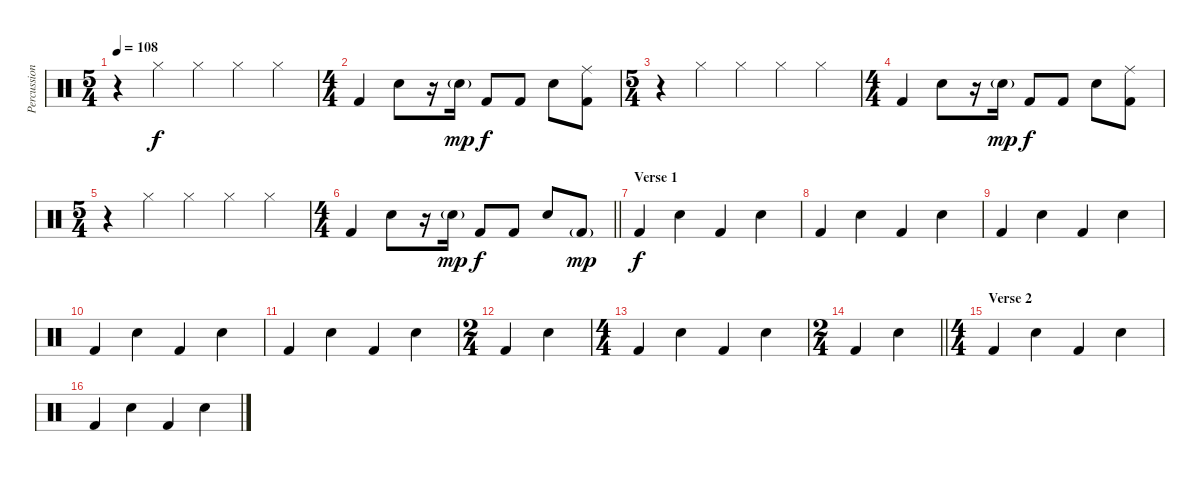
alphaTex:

\track ("Percussion" "Percussion") {instrument percussion}
\staff {score}
\articulation defaults
\ts (5 4)
\tempo 108
\clef neutral
\ks c
r.4{dy f} "Hi-Hat (closed)".4 "Hi-Hat (closed)".4 "Hi-Hat (closed)".4 "Hi-Hat (closed)".4 |
\ts (4 4)
"Kick (hit) 2".4 "Snare (hit) 2".8 r.16 "Snare (hit) 2"{g}.16{dy mp} "Kick (hit) 2".8{dy f} "Kick (hit) 2".8 "Snare (hit) 2".8 ("Ride (middle)" "Kick (hit) 2").8 |
\ts (5 4)
r.4 "Hi-Hat (closed)".4 "Hi-Hat (closed)".4 "Hi-Hat (closed)".4 "Hi-Hat (closed)".4 |
\ts (4 4)
"Kick (hit) 2".4 "Snare (hit) 2".8 r.16 "Snare (hit) 2"{g}.16{dy mp} "Kick (hit) 2".8{dy f} "Kick (hit) 2".8 "Snare (hit) 2".8 ("Ride (middle)" "Kick (hit) 2").8 |
\ts (5 4)
r.4 "Hi-Hat (closed)".4 "Hi-Hat (closed)".4 "Hi-Hat (closed)".4 "Hi-Hat (closed)".4 |
\ts (4 4)
\barLineRight lightlight "Kick (hit) 2".4 "Snare (hit) 2".8
r.16 "Snare (hit) 2"{g}.16{dy mp} "Kick (hit) 2".8{dy f} "Kick (hit) 2".8 "Snare (hit) 2".8 "Kick (hit) 2"{g}.8{dy mp} |
\section ("" "Verse 1")
"Kick (hit) 2".4{dy f} "Snare (hit) 2".4 "Kick (hit) 2".4 "Snare (hit) 2".4 |
"Kick (hit) 2".4 "Snare (hit) 2".4 "Kick (hit) 2".4 "Snare (hit) 2".4 |
"Kick (hit) 2".4 "Snare (hit) 2".4 "Kick (hit) 2".4 "Snare (hit) 2".4 |
"Kick (hit) 2".4 "Snare (hit) 2".4 "Kick (hit) 2".4 "Snare (hit) 2".4 |
"Kick (hit) 2".4 "Snare (hit) 2".4 "Kick (hit) 2".4 "Snare (hit) 2".4 |
\ts (2 4)
"Kick (hit) 2".4 "Snare (hit) 2".4 |
\ts (4 4)
"Kick (hit) 2".4 "Snare (hit) 2".4 "Kick (hit) 2".4 "Snare (hit) 2".4 |
\ts (2 4)
\barLineRight lightlight "Kick (hit) 2".4 "Snare (hit) 2".4
|
\ts (4 4)
\section ("" "Verse 2")
"Kick (hit) 2".4 "Snare (hit) 2".4 "Kick (hit) 2".4 "Snare (hit) 2".4 |
"Kick (hit) 2".4 "Snare (hit) 2".4 "Kick (hit) 2".4 "Snare (hit) 2".4
